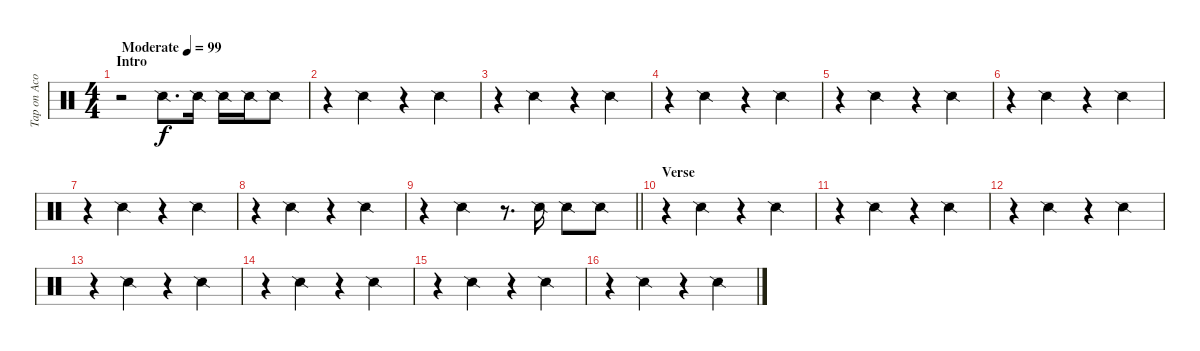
\track ("Tap on Acoustic" "Tap on Aco") {instrument percussion}
\staff {score}
\articulation defaults
\ts (4 4)
\section ("" "Intro")
\tempo (99 "Moderate")
\clef neutral
\ks c
r.2{dy f} "Snare (side stick) 2".8{d} "Snare (side stick) 2".16 "Snare (side stick) 2".16 "Snare (side stick) 2".16 "Snare (side stick) 2".8 |
r.4 "Snare (side stick) 2".4 r.4 "Snare (side stick) 2".4 |
r.4 "Snare (side stick) 2".4 r.4 "Snare (side stick) 2".4 |
r.4 "Snare (side stick) 2".4 r.4 "Snare (side stick) 2".4 |
r.4 "Snare (side stick) 2".4 r.4 "Snare (side stick) 2".4 |
r.4 "Snare (side stick) 2".4 r.4 "Snare (side stick) 2".4 |
r.4 "Snare (side stick) 2".4 r.4 "Snare (side stick) 2".4 |
r.4 "Snare (side stick) 2".4 r.4 "Snare (side stick) 2".4 |
\barLineRight lightlight
r.4 "Snare (side stick) 2".4 r.8{d} "Snare (side stick) 2".16 "Snare (side stick) 2".8 "Snare (side stick) 2".8 |
\section ("" "Verse")
r.4 "Snare (side stick) 2".4 r.4 "Snare (side stick) 2".4 |
r.4 "Snare (side stick) 2".4 r.4 "Snare (side stick) 2".4 |
r.4 "Snare (side stick) 2".4 r.4 "Snare (side stick) 2".4 |
r.4 "Snare (side stick) 2".4 r.4 "Snare (side stick) 2".4 |
r.4 "Snare (side stick) 2".4 r.4 "Snare (side stick) 2".4 |
r.4 "Snare (side stick) 2".4 r.4 "Snare (side stick) 2".4 |
r.4 "Snare (side stick) 2".4 r.4 "Snare (side stick) 2".4
